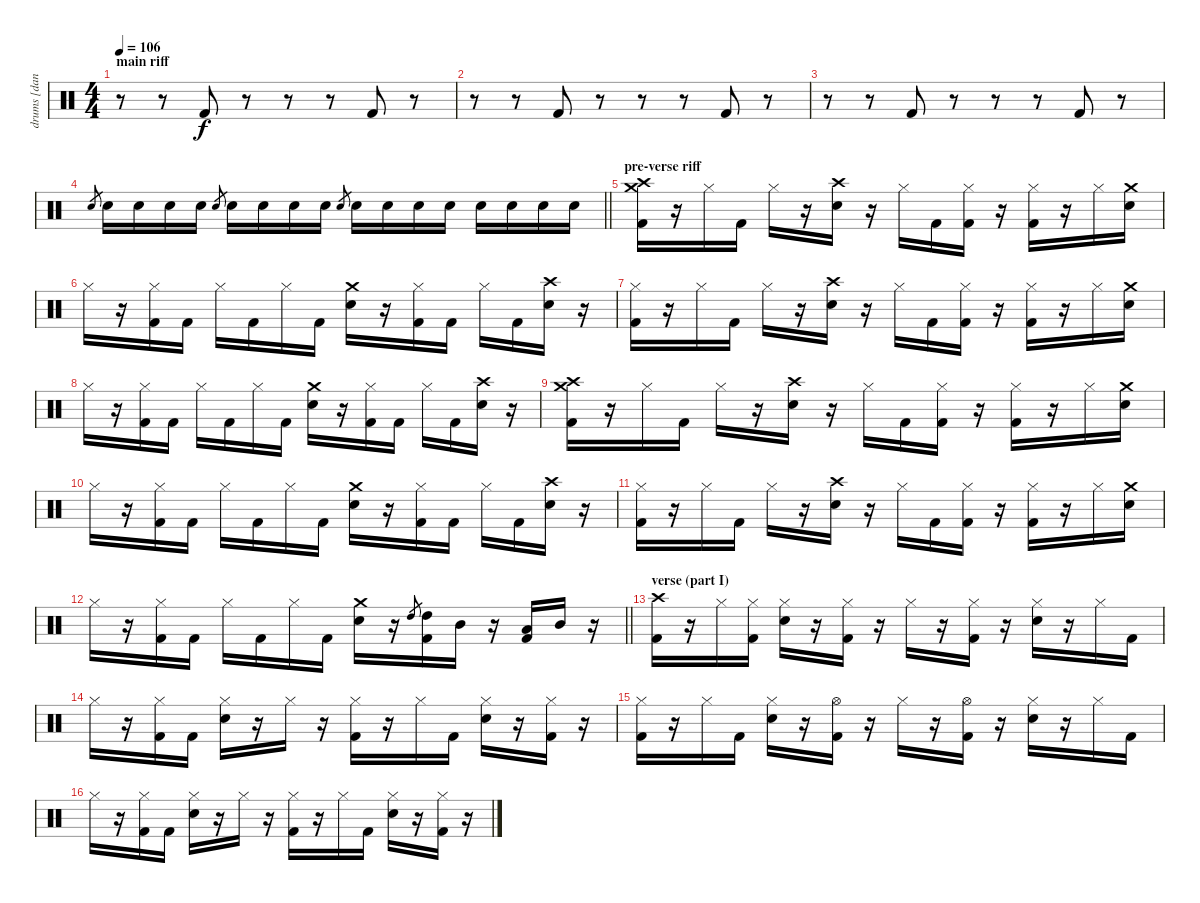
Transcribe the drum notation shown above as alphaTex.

\track ("drums [danny carey]" "drums [dan") {instrument percussion}
\staff {score}
\articulation defaults
\ts (4 4)
\section ("" "main riff")
\tempo 106
\clef neutral
\ks c
r.8{dy f volume 12} r.8 "Kick (hit) 2".8 r.8 r.8 r.8 "Kick (hit) 2".8 r.8 |
r.8 r.8 "Kick (hit) 2".8 r.8 r.8 r.8 "Kick (hit) 2".8 r.8 |
r.8 r.8 "Kick (hit) 2".8 r.8 r.8 r.8 "Kick (hit) 2".8 r.8 |
\barLineRight lightlight "Electric Snare (hit)".8{gr} "Electric Snare (hit)".16 "Electric Snare (hit)".16 "Electric Snare (hit)".16 "Electric Snare (hit)".16 "Electric Snare (hit)".8{gr} "Electric Snare (hit)".16 "Electric Snare (hit)".16 "Electric Snare (hit)".16 "Electric Snare (hit)".16 "Electric Snare (hit)".8{gr} "Electric Snare (hit)".16 "Electric Snare (hit)".16 "Electric Snare (hit)".16 "Electric Snare (hit)".16 "Electric Snare (hit)".16 "Electric Snare (hit)".16 "Electric Snare (hit)".16 "Electric Snare (hit)".16
|
\section ("" "pre-verse riff")
("Crash high (hit)" "Crash medium (hit)" "Kick (hit) 2").16{volume 14} r.16 "Hi-Hat (closed)".16 "Kick (hit) 2".16 "Hi-Hat (closed)".16 r.16 ("Crash high (hit)" "Electric Snare (hit)").16 r.16 "Hi-Hat (closed)".16 "Kick (hit) 2".16 ("Hi-Hat (closed)" "Kick (hit) 2").16 r.16 ("Hi-Hat (closed)" "Kick (hit) 2").16 r.16 "Hi-Hat (closed)".16 ("Crash medium (hit)" "Electric Snare (hit)").16 |
"Hi-Hat (closed)".16 r.16 ("Hi-Hat (closed)" "Kick (hit) 2").16 "Kick (hit) 2".16 "Hi-Hat (closed)".16 "Kick (hit) 2".16 "Hi-Hat (closed)".16 "Kick (hit) 2".16 ("Crash medium (hit)" "Electric Snare (hit)").16 r.16 ("Hi-Hat (closed)" "Kick (hit) 2").16 "Kick (hit) 2".16 "Hi-Hat (closed)".16 "Kick (hit) 2".16 ("Crash high (hit)" "Electric Snare (hit)").16 r.16 |
("Hi-Hat (closed)" "Kick (hit) 2").16 r.16 "Hi-Hat (closed)".16 "Kick (hit) 2".16 "Hi-Hat (closed)".16 r.16 ("Crash high (hit)" "Electric Snare (hit)").16 r.16 "Hi-Hat (closed)".16 "Kick (hit) 2".16 ("Hi-Hat (closed)" "Kick (hit) 2").16 r.16 ("Hi-Hat (closed)" "Kick (hit) 2").16 r.16 "Hi-Hat (closed)".16 ("Crash medium (hit)" "Electric Snare (hit)").16 |
"Hi-Hat (closed)".16 r.16 ("Hi-Hat (closed)" "Kick (hit) 2").16 "Kick (hit) 2".16 "Hi-Hat (closed)".16 "Kick (hit) 2".16 "Hi-Hat (closed)".16 "Kick (hit) 2".16 ("Crash medium (hit)" "Electric Snare (hit)").16 r.16 ("Hi-Hat (closed)" "Kick (hit) 2").16 "Kick (hit) 2".16 "Hi-Hat (closed)".16 "Kick (hit) 2".16 ("Crash high (hit)" "Electric Snare (hit)").16 r.16 |
("Crash high (hit)" "Crash medium (hit)" "Kick (hit) 2").16 r.16 "Hi-Hat (closed)".16 "Kick (hit) 2".16 "Hi-Hat (closed)".16 r.16 ("Crash high (hit)" "Electric Snare (hit)").16 r.16 "Hi-Hat (closed)".16 "Kick (hit) 2".16 ("Hi-Hat (closed)" "Kick (hit) 2").16 r.16 ("Hi-Hat (closed)" "Kick (hit) 2").16 r.16 "Hi-Hat (closed)".16 ("Crash medium (hit)" "Electric Snare (hit)").16 |
"Hi-Hat (closed)".16 r.16 ("Hi-Hat (closed)" "Kick (hit) 2").16 "Kick (hit) 2".16 "Hi-Hat (closed)".16 "Kick (hit) 2".16 "Hi-Hat (closed)".16 "Kick (hit) 2".16 ("Crash medium (hit)" "Electric Snare (hit)").16 r.16 ("Hi-Hat (closed)" "Kick (hit) 2").16 "Kick (hit) 2".16 "Hi-Hat (closed)".16 "Kick (hit) 2".16 ("Crash high (hit)" "Electric Snare (hit)").16 r.16 |
("Hi-Hat (closed)" "Kick (hit) 2").16 r.16 "Hi-Hat (closed)".16 "Kick (hit) 2".16 "Hi-Hat (closed)".16 r.16 ("Crash high (hit)" "Electric Snare (hit)").16 r.16 "Hi-Hat (closed)".16 "Kick (hit) 2".16 ("Hi-Hat (closed)" "Kick (hit) 2").16 r.16 ("Hi-Hat (closed)" "Kick (hit) 2").16 r.16 "Hi-Hat (closed)".16 ("Crash medium (hit)" "Electric Snare (hit)").16 |
\barLineRight lightlight "Hi-Hat (closed)".16
r.16 ("Hi-Hat (closed)" "Kick (hit) 2").16 "Kick (hit) 2".16 "Hi-Hat (closed)".16 "Kick (hit) 2".16 "Hi-Hat (closed)".16 "Kick (hit) 2".16 ("Crash medium (hit)" "Electric Snare (hit)").16 r.16 "High Tom (hit)".8{gr} ("High Tom (hit)" "Kick (hit) 2").16 "Mid Tom (hit)".16 r.16 ("Low Tom (hit)" "Kick (hit) 2").16 "Mid Tom (hit)".16 r.16 |
\section ("" "verse (part I)")
("Crash high (hit)" "Kick (hit) 2").16 r.16 "Hi-Hat (closed)".16 ("Hi-Hat (closed)" "Kick (hit) 2").16 ("Hi-Hat (closed)" "Electric Snare (hit)").16 r.16 ("Hi-Hat (closed)" "Kick (hit) 2").16 r.16 "Hi-Hat (closed)".16 r.16 ("Hi-Hat (closed)" "Kick (hit) 2").16 r.16 ("Hi-Hat (closed)" "Electric Snare (hit)").16 r.16 "Hi-Hat (closed)".16 "Kick (hit) 2".16 |
"Hi-Hat (closed)".16 r.16 ("Hi-Hat (closed)" "Kick (hit) 2").16 "Kick (hit) 2".16 ("Hi-Hat (closed)" "Electric Snare (hit)").16 r.16 "Hi-Hat (closed)".16 r.16 ("Hi-Hat (closed)" "Kick (hit) 2").16 r.16 "Hi-Hat (closed)".16 "Kick (hit) 2".16 ("Hi-Hat (closed)" "Electric Snare (hit)").16 r.16 ("Hi-Hat (closed)" "Kick (hit) 2").16 r.16 |
("Hi-Hat (closed)" "Kick (hit) 2").16 r.16 "Hi-Hat (closed)".16 "Kick (hit) 2".16 ("Hi-Hat (closed)" "Electric Snare (hit)").16 r.16 ("Hi-Hat (open)" "Kick (hit) 2").16 r.16 "Hi-Hat (closed)".16 r.16 ("Hi-Hat (open)" "Kick (hit) 2").16 r.16 ("Hi-Hat (closed)" "Electric Snare (hit)").16 r.16 "Hi-Hat (closed)".16 "Kick (hit) 2".16 |
"Hi-Hat (closed)".16 r.16 ("Hi-Hat (closed)" "Kick (hit) 2").16 "Kick (hit) 2".16 ("Hi-Hat (closed)" "Electric Snare (hit)").16 r.16 "Hi-Hat (closed)".16 r.16 ("Hi-Hat (closed)" "Kick (hit) 2").16 r.16 "Hi-Hat (closed)".16 "Kick (hit) 2".16 ("Hi-Hat (closed)" "Electric Snare (hit)").16 r.16 ("Hi-Hat (closed)" "Kick (hit) 2").16 r.16
